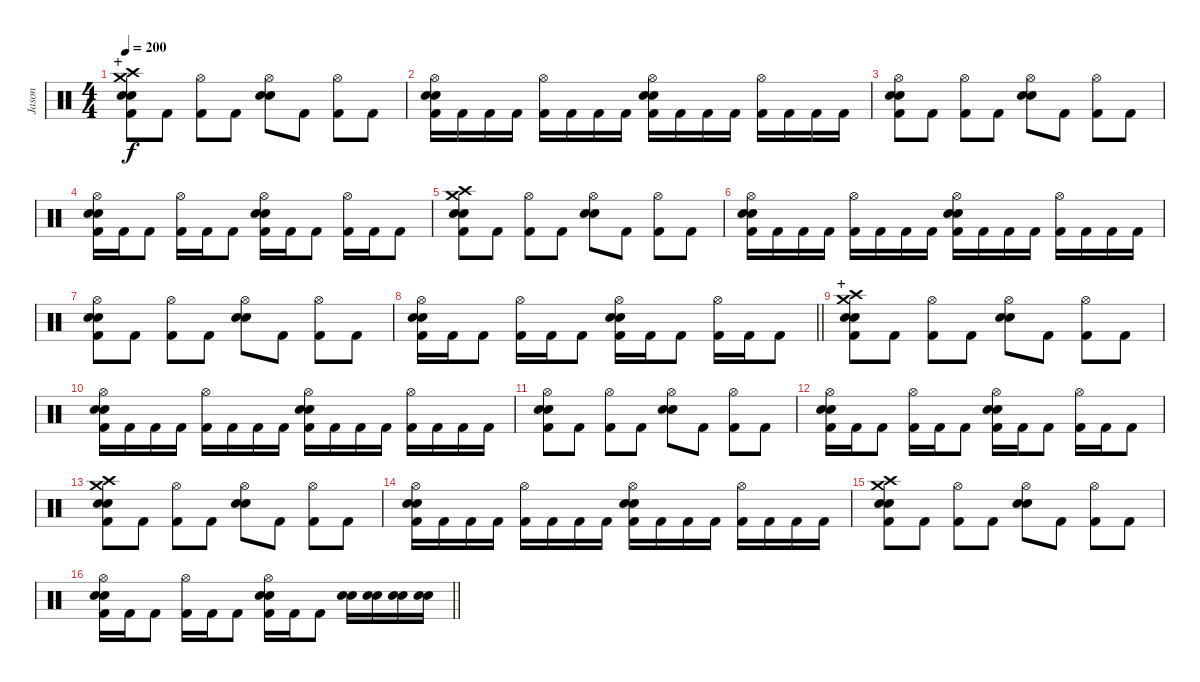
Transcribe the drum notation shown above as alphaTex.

\track ("Jason" "Jason") {instrument percussion}
\staff {score}
\articulation defaults
\ts (4 4)
\section ("" "+")
\tempo 200
\clef neutral
\ks c
("Crash medium (hit)" "Crash high (hit)" "Electric Snare (hit)" "Snare (hit) 2" "Kick (hit) 2").8{dy f} "Kick (hit) 2".8 ("Hi-Hat (open)" "Kick (hit) 2").8 "Kick (hit) 2".8 ("Hi-Hat (open)" "Electric Snare (hit)" "Snare (hit) 2").8 "Kick (hit) 2".8 ("Hi-Hat (open)" "Kick (hit) 2").8 "Kick (hit) 2".8 |
("Hi-Hat (open)" "Electric Snare (hit)" "Snare (hit) 2" "Kick (hit) 2").16 "Kick (hit) 2".16 "Kick (hit) 2".16 "Kick (hit) 2".16 ("Hi-Hat (open)" "Kick (hit) 2").16 "Kick (hit) 2".16 "Kick (hit) 2".16 "Kick (hit) 2".16 ("Hi-Hat (open)" "Electric Snare (hit)" "Snare (hit) 2" "Kick (hit) 2").16 "Kick (hit) 2".16 "Kick (hit) 2".16 "Kick (hit) 2".16 ("Hi-Hat (open)" "Kick (hit) 2").16 "Kick (hit) 2".16 "Kick (hit) 2".16 "Kick (hit) 2".16 |
("Hi-Hat (open)" "Electric Snare (hit)" "Snare (hit) 2" "Kick (hit) 2").8 "Kick (hit) 2".8 ("Hi-Hat (open)" "Kick (hit) 2").8 "Kick (hit) 2".8 ("Hi-Hat (open)" "Electric Snare (hit)" "Snare (hit) 2").8 "Kick (hit) 2".8 ("Hi-Hat (open)" "Kick (hit) 2").8 "Kick (hit) 2".8 |
("Hi-Hat (open)" "Electric Snare (hit)" "Snare (hit) 2" "Kick (hit) 2").16 "Kick (hit) 2".16 "Kick (hit) 2".8 ("Hi-Hat (open)" "Kick (hit) 2").16 "Kick (hit) 2".16 "Kick (hit) 2".8 ("Hi-Hat (open)" "Electric Snare (hit)" "Snare (hit) 2" "Kick (hit) 2").16 "Kick (hit) 2".16 "Kick (hit) 2".8 ("Hi-Hat (open)" "Kick (hit) 2").16 "Kick (hit) 2".16 "Kick (hit) 2".8 |
("Crash medium (hit)" "Crash high (hit)" "Electric Snare (hit)" "Snare (hit) 2" "Kick (hit) 2").8 "Kick (hit) 2".8 ("Hi-Hat (open)" "Kick (hit) 2").8 "Kick (hit) 2".8 ("Hi-Hat (open)" "Electric Snare (hit)" "Snare (hit) 2").8 "Kick (hit) 2".8 ("Hi-Hat (open)" "Kick (hit) 2").8 "Kick (hit) 2".8 |
("Hi-Hat (open)" "Electric Snare (hit)" "Snare (hit) 2" "Kick (hit) 2").16 "Kick (hit) 2".16 "Kick (hit) 2".16 "Kick (hit) 2".16 ("Hi-Hat (open)" "Kick (hit) 2").16 "Kick (hit) 2".16 "Kick (hit) 2".16 "Kick (hit) 2".16 ("Hi-Hat (open)" "Electric Snare (hit)" "Snare (hit) 2" "Kick (hit) 2").16 "Kick (hit) 2".16 "Kick (hit) 2".16 "Kick (hit) 2".16 ("Hi-Hat (open)" "Kick (hit) 2").16 "Kick (hit) 2".16 "Kick (hit) 2".16 "Kick (hit) 2".16 |
("Hi-Hat (open)" "Electric Snare (hit)" "Snare (hit) 2" "Kick (hit) 2").8 "Kick (hit) 2".8 ("Hi-Hat (open)" "Kick (hit) 2").8 "Kick (hit) 2".8 ("Hi-Hat (open)" "Electric Snare (hit)" "Snare (hit) 2").8 "Kick (hit) 2".8 ("Hi-Hat (open)" "Kick (hit) 2").8 "Kick (hit) 2".8 |
\barLineRight lightlight
("Hi-Hat (open)" "Electric Snare (hit)" "Snare (hit) 2" "Kick (hit) 2").16 "Kick (hit) 2".16 "Kick (hit) 2".8 ("Hi-Hat (open)" "Kick (hit) 2").16 "Kick (hit) 2".16 "Kick (hit) 2".8 ("Hi-Hat (open)" "Electric Snare (hit)" "Snare (hit) 2" "Kick (hit) 2").16 "Kick (hit) 2".16 "Kick (hit) 2".8 ("Hi-Hat (open)" "Kick (hit) 2").16 "Kick (hit) 2".16 "Kick (hit) 2".8 |
\section ("" "+")
("Crash medium (hit)" "Crash high (hit)" "Electric Snare (hit)" "Snare (hit) 2" "Kick (hit) 2").8 "Kick (hit) 2".8 ("Hi-Hat (open)" "Kick (hit) 2").8 "Kick (hit) 2".8 ("Hi-Hat (open)" "Electric Snare (hit)" "Snare (hit) 2").8 "Kick (hit) 2".8 ("Hi-Hat (open)" "Kick (hit) 2").8 "Kick (hit) 2".8 |
("Hi-Hat (open)" "Electric Snare (hit)" "Snare (hit) 2" "Kick (hit) 2").16 "Kick (hit) 2".16 "Kick (hit) 2".16 "Kick (hit) 2".16 ("Hi-Hat (open)" "Kick (hit) 2").16 "Kick (hit) 2".16 "Kick (hit) 2".16 "Kick (hit) 2".16 ("Hi-Hat (open)" "Electric Snare (hit)" "Snare (hit) 2" "Kick (hit) 2").16 "Kick (hit) 2".16 "Kick (hit) 2".16 "Kick (hit) 2".16 ("Hi-Hat (open)" "Kick (hit) 2").16 "Kick (hit) 2".16 "Kick (hit) 2".16 "Kick (hit) 2".16 |
("Hi-Hat (open)" "Electric Snare (hit)" "Snare (hit) 2" "Kick (hit) 2").8 "Kick (hit) 2".8 ("Hi-Hat (open)" "Kick (hit) 2").8 "Kick (hit) 2".8 ("Hi-Hat (open)" "Electric Snare (hit)" "Snare (hit) 2").8 "Kick (hit) 2".8 ("Hi-Hat (open)" "Kick (hit) 2").8 "Kick (hit) 2".8 |
("Hi-Hat (open)" "Electric Snare (hit)" "Snare (hit) 2" "Kick (hit) 2").16 "Kick (hit) 2".16 "Kick (hit) 2".8 ("Hi-Hat (open)" "Kick (hit) 2").16 "Kick (hit) 2".16 "Kick (hit) 2".8 ("Hi-Hat (open)" "Electric Snare (hit)" "Snare (hit) 2" "Kick (hit) 2").16 "Kick (hit) 2".16 "Kick (hit) 2".8 ("Hi-Hat (open)" "Kick (hit) 2").16 "Kick (hit) 2".16 "Kick (hit) 2".8 |
("Crash medium (hit)" "Crash high (hit)" "Electric Snare (hit)" "Snare (hit) 2" "Kick (hit) 2").8 "Kick (hit) 2".8 ("Hi-Hat (open)" "Kick (hit) 2").8 "Kick (hit) 2".8 ("Hi-Hat (open)" "Electric Snare (hit)" "Snare (hit) 2").8 "Kick (hit) 2".8 ("Hi-Hat (open)" "Kick (hit) 2").8 "Kick (hit) 2".8 |
("Hi-Hat (open)" "Electric Snare (hit)" "Snare (hit) 2" "Kick (hit) 2").16 "Kick (hit) 2".16 "Kick (hit) 2".16 "Kick (hit) 2".16 ("Hi-Hat (open)" "Kick (hit) 2").16 "Kick (hit) 2".16 "Kick (hit) 2".16 "Kick (hit) 2".16 ("Hi-Hat (open)" "Electric Snare (hit)" "Snare (hit) 2" "Kick (hit) 2").16 "Kick (hit) 2".16 "Kick (hit) 2".16 "Kick (hit) 2".16 ("Hi-Hat (open)" "Kick (hit) 2").16 "Kick (hit) 2".16 "Kick (hit) 2".16 "Kick (hit) 2".16 |
("Crash medium (hit)" "Crash high (hit)" "Electric Snare (hit)" "Snare (hit) 2" "Kick (hit) 2").8 "Kick (hit) 2".8 ("Hi-Hat (open)" "Kick (hit) 2").8 "Kick (hit) 2".8 ("Hi-Hat (open)" "Electric Snare (hit)" "Snare (hit) 2").8 "Kick (hit) 2".8 ("Hi-Hat (open)" "Kick (hit) 2").8 "Kick (hit) 2".8 |
\barLineRight lightlight
("Hi-Hat (open)" "Electric Snare (hit)" "Snare (hit) 2" "Kick (hit) 2").16 "Kick (hit) 2".16 "Kick (hit) 2".8 ("Hi-Hat (open)" "Kick (hit) 2").16 "Kick (hit) 2".16 "Kick (hit) 2".8 ("Hi-Hat (open)" "Electric Snare (hit)" "Snare (hit) 2" "Kick (hit) 2").16 "Kick (hit) 2".16 "Kick (hit) 2".8 ("Electric Snare (hit)" "Snare (hit) 2").16 ("Electric Snare (hit)" "Snare (hit) 2").16 ("Electric Snare (hit)" "Snare (hit) 2").16 ("Electric Snare (hit)" "Snare (hit) 2").16
